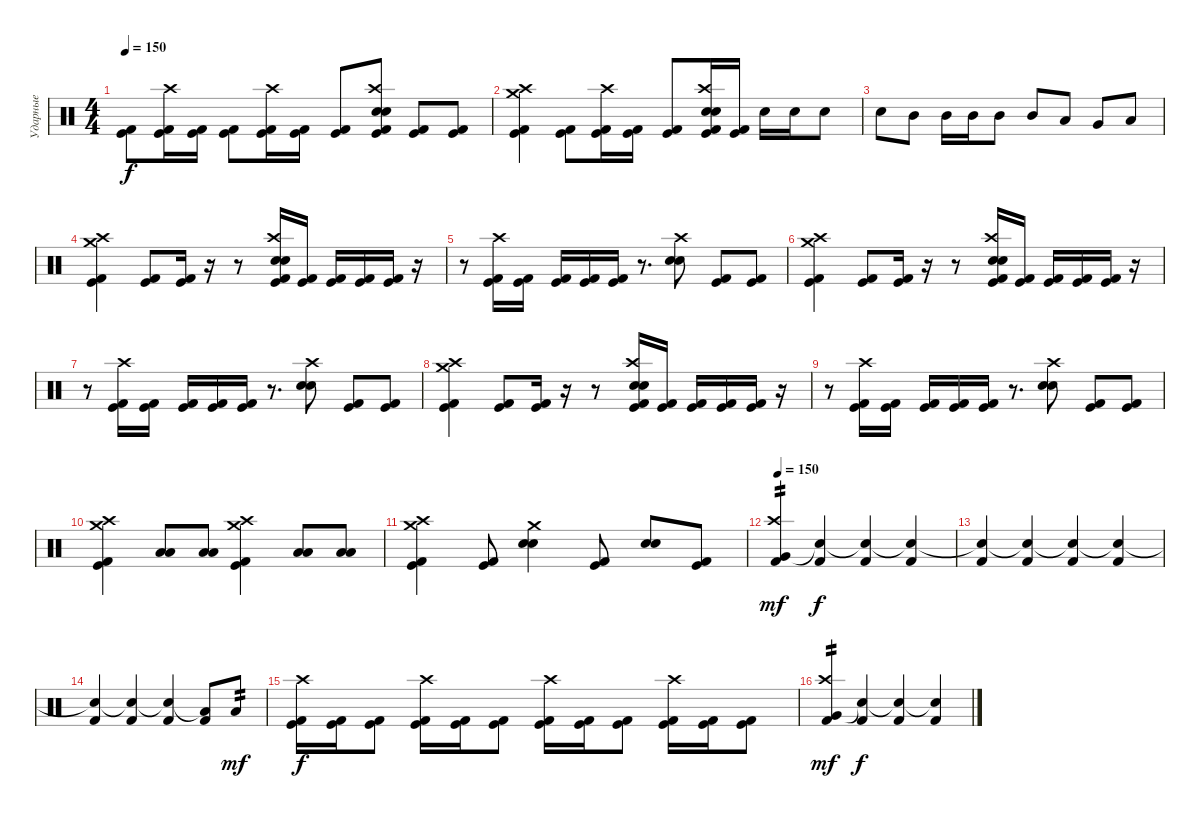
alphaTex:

\track ("Ударные" "Ударные") {instrument percussion}
\staff {score}
\articulation defaults
\ts (4 4)
\tempo 150
\clef neutral
\ks c
("Kick (hit) 2" "Kick (hit)").8{dy f} ("Kick (hit) 2" "Kick (hit)" "Crash high (hit)").16 ("Kick (hit) 2" "Kick (hit)").16 ("Kick (hit) 2" "Kick (hit)").8 ("Kick (hit) 2" "Kick (hit)" "Crash high (hit)").16 ("Kick (hit) 2" "Kick (hit)").16 ("Kick (hit) 2" "Kick (hit)").8 ("Kick (hit) 2" "Kick (hit)" "Electric Snare (hit)" "Snare (hit) 2" "Crash high (hit)").8 ("Kick (hit) 2" "Kick (hit)").8 ("Kick (hit) 2" "Kick (hit)").8 |
("Kick (hit) 2" "Kick (hit)" "Crash medium (hit)" "Crash high (hit)").4 ("Kick (hit) 2" "Kick (hit)").8 ("Kick (hit) 2" "Kick (hit)" "Crash high (hit)").16 ("Kick (hit) 2" "Kick (hit)").16 ("Kick (hit) 2" "Kick (hit)").8 ("Kick (hit) 2" "Kick (hit)" "Electric Snare (hit)" "Snare (hit) 2" "Crash high (hit)").16 ("Kick (hit) 2" "Kick (hit)").16 "Snare (hit) 2".16 "Snare (hit) 2".16 "Snare (hit) 2".8 |
"Snare (hit) 2".8 "Mid Tom (hit)".8 "Mid Tom (hit)".16 "Mid Tom (hit)".16 "Mid Tom (hit)".8 "Mid Tom (hit)".8 "Low Tom (hit)".8 "Very Low Tom (hit)".8 "Low Floor Tom (hit)".8 |
("Kick (hit) 2" "Kick (hit)" "Crash medium (hit)" "Crash high (hit)").4 ("Kick (hit) 2" "Kick (hit)").8 ("Kick (hit) 2" "Kick (hit)").16 r.16 r.8 ("Kick (hit) 2" "Kick (hit)" "Electric Snare (hit)" "Snare (hit) 2" "Crash high (hit)").16 ("Kick (hit) 2" "Kick (hit)").16 ("Kick (hit) 2" "Kick (hit)").16 ("Kick (hit) 2" "Kick (hit)").16 ("Kick (hit) 2" "Kick (hit)").16 r.16 |
r.8 ("Kick (hit) 2" "Kick (hit)" "Crash high (hit)").16 ("Kick (hit) 2" "Kick (hit)").16 ("Kick (hit) 2" "Kick (hit)").16 ("Kick (hit) 2" "Kick (hit)").16 ("Kick (hit) 2" "Kick (hit)").16 r.8{d} ("Snare (hit) 2" "Electric Snare (hit)" "Crash high (hit)").8 ("Kick (hit) 2" "Kick (hit)").8 ("Kick (hit) 2" "Kick (hit)").8 |
("Kick (hit) 2" "Kick (hit)" "Crash medium (hit)" "Crash high (hit)").4 ("Kick (hit) 2" "Kick (hit)").8 ("Kick (hit) 2" "Kick (hit)").16 r.16 r.8 ("Kick (hit) 2" "Kick (hit)" "Electric Snare (hit)" "Snare (hit) 2" "Crash high (hit)").16 ("Kick (hit) 2" "Kick (hit)").16 ("Kick (hit) 2" "Kick (hit)").16 ("Kick (hit) 2" "Kick (hit)").16 ("Kick (hit) 2" "Kick (hit)").16 r.16 |
r.8 ("Kick (hit) 2" "Kick (hit)" "Crash high (hit)").16 ("Kick (hit) 2" "Kick (hit)").16 ("Kick (hit) 2" "Kick (hit)").16 ("Kick (hit) 2" "Kick (hit)").16 ("Kick (hit) 2" "Kick (hit)").16 r.8{d} ("Snare (hit) 2" "Electric Snare (hit)" "Crash high (hit)").8 ("Kick (hit) 2" "Kick (hit)").8 ("Kick (hit) 2" "Kick (hit)").8 |
("Kick (hit) 2" "Kick (hit)" "Crash medium (hit)" "Crash high (hit)").4 ("Kick (hit) 2" "Kick (hit)").8 ("Kick (hit) 2" "Kick (hit)").16 r.16 r.8 ("Kick (hit) 2" "Kick (hit)" "Electric Snare (hit)" "Snare (hit) 2" "Crash high (hit)").16 ("Kick (hit) 2" "Kick (hit)").16 ("Kick (hit) 2" "Kick (hit)").16 ("Kick (hit) 2" "Kick (hit)").16 ("Kick (hit) 2" "Kick (hit)").16 r.16 |
r.8 ("Kick (hit) 2" "Kick (hit)" "Crash high (hit)").16 ("Kick (hit) 2" "Kick (hit)").16 ("Kick (hit) 2" "Kick (hit)").16 ("Kick (hit) 2" "Kick (hit)").16 ("Kick (hit) 2" "Kick (hit)").16 r.8{d} ("Snare (hit) 2" "Electric Snare (hit)" "Crash high (hit)").8 ("Kick (hit) 2" "Kick (hit)").8 ("Kick (hit) 2" "Kick (hit)").8 |
("Kick (hit) 2" "Kick (hit)" "Crash medium (hit)" "Crash high (hit)").4 ("Low Tom (hit)" "Low Floor Tom (hit)").8 ("Low Tom (hit)" "Low Floor Tom (hit)").8 ("Kick (hit) 2" "Kick (hit)" "Crash medium (hit)" "Crash high (hit)").4 ("Low Tom (hit)" "Low Floor Tom (hit)").8 ("Low Floor Tom (hit)" "Low Floor Tom (hit)").8 |
("Kick (hit) 2" "Kick (hit)" "Crash medium (hit)" "Crash high (hit)").4 ("Kick (hit) 2" "Kick (hit)").8 ("Snare (hit) 2" "Electric Snare (hit)" "Crash medium (hit)").4 ("Kick (hit) 2" "Kick (hit)").8 ("Snare (hit) 2" "Electric Snare (hit)").8 ("Kick (hit) 2" "Kick (hit)").8 |
\tempo 150
("Kick (hit) 2" "Very Low Tom (hit)" "Crash high (hit)").4{tp 2 dy mf} ("Kick (hit) 2" "Snare (hit)"{t}).4{dy f} ("Kick (hit) 2" "Snare (hit)"{t}).4 ("Kick (hit) 2" "Snare (hit)"{t}).4 |
("Kick (hit) 2" "Snare (hit)"{t}).4 ("Kick (hit) 2" "Snare (hit)"{t}).4 ("Kick (hit) 2" "Snare (hit)"{t}).4 ("Kick (hit) 2" "Snare (hit)"{t}).4 |
("Kick (hit) 2" "Snare (hit)"{t}).4 ("Kick (hit) 2" "Snare (hit)"{t}).4 ("Kick (hit) 2" "Snare (hit)"{t}).4 ("Kick (hit) 2" "Low Floor Tom (hit)"{t}).8 "Low Floor Tom (hit)".8{tp 2 dy mf} |
("Kick (hit) 2" "Kick (hit)" "Crash high (hit)").16{dy f} ("Kick (hit) 2" "Kick (hit)").16 ("Kick (hit) 2" "Kick (hit)").8 ("Kick (hit) 2" "Kick (hit)" "Crash high (hit)").16 ("Kick (hit) 2" "Kick (hit)").16 ("Kick (hit) 2" "Kick (hit)").8 ("Kick (hit) 2" "Kick (hit)" "Crash high (hit)").16 ("Kick (hit) 2" "Kick (hit)").16 ("Kick (hit) 2" "Kick (hit)").8 ("Kick (hit) 2" "Kick (hit)" "Crash high (hit)").16 ("Kick (hit) 2" "Kick (hit)").16 ("Kick (hit) 2" "Kick (hit)").8 |
("Kick (hit) 2" "Very Low Tom (hit)" "Crash high (hit)").4{tp 2 dy mf} ("Kick (hit) 2" "Snare (hit)"{t}).4{dy f} ("Kick (hit) 2" "Snare (hit)"{t}).4 ("Kick (hit) 2" "Snare (hit)"{t}).4
